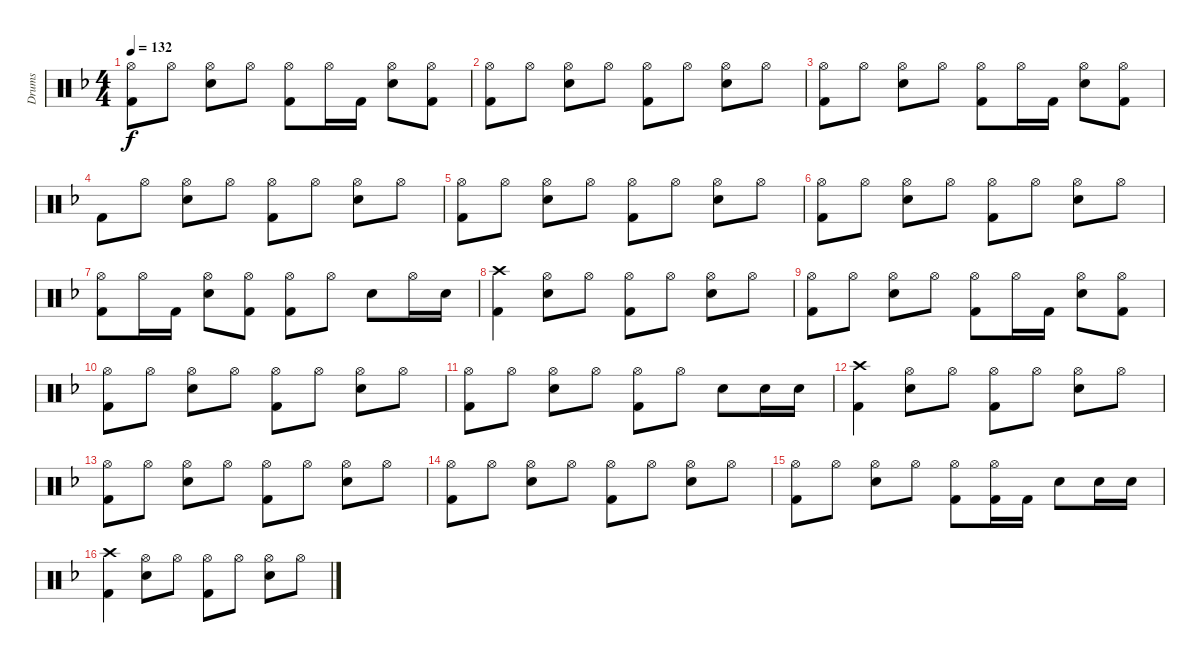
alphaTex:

\track ("Drums " "Drums ") {instrument percussion}
\staff {score}
\articulation defaults
\ts (4 4)
\tempo 132
\clef neutral
\ks dminor
("Kick (hit) 2" "Hi-Hat (open)").8{dy f} "Hi-Hat (open)".8 ("Snare (hit) 2" "Hi-Hat (open)").8 "Hi-Hat (open)".8 ("Kick (hit) 2" "Hi-Hat (open)").8 "Hi-Hat (open)".16 "Kick (hit) 2".16 ("Snare (hit) 2" "Hi-Hat (open)").8 ("Kick (hit) 2" "Hi-Hat (open)").8 |
("Kick (hit) 2" "Hi-Hat (open)").8 "Hi-Hat (open)".8 ("Snare (hit) 2" "Hi-Hat (open)").8 "Hi-Hat (open)".8 ("Kick (hit) 2" "Hi-Hat (open)").8 "Hi-Hat (open)".8 ("Snare (hit) 2" "Hi-Hat (open)").8 "Hi-Hat (open)".8 |
("Kick (hit) 2" "Hi-Hat (open)").8 "Hi-Hat (open)".8 ("Snare (hit) 2" "Hi-Hat (open)").8 "Hi-Hat (open)".8 ("Kick (hit) 2" "Hi-Hat (open)").8 "Hi-Hat (open)".16 "Kick (hit) 2".16 ("Snare (hit) 2" "Hi-Hat (open)").8 ("Kick (hit) 2" "Hi-Hat (open)").8 |
"Kick (hit) 2".8 "Hi-Hat (open)".8 ("Snare (hit) 2" "Hi-Hat (open)").8 "Hi-Hat (open)".8 ("Kick (hit) 2" "Hi-Hat (open)").8 "Hi-Hat (open)".8 ("Snare (hit) 2" "Hi-Hat (open)").8 "Hi-Hat (open)".8 |
("Kick (hit) 2" "Hi-Hat (open)").8 "Hi-Hat (open)".8 ("Snare (hit) 2" "Hi-Hat (open)").8 "Hi-Hat (open)".8 ("Kick (hit) 2" "Hi-Hat (open)").8 "Hi-Hat (open)".8 ("Snare (hit) 2" "Hi-Hat (open)").8 "Hi-Hat (open)".8 |
("Kick (hit) 2" "Hi-Hat (open)").8 "Hi-Hat (open)".8 ("Snare (hit) 2" "Hi-Hat (open)").8 "Hi-Hat (open)".8 ("Kick (hit) 2" "Hi-Hat (open)").8 "Hi-Hat (open)".8 ("Snare (hit) 2" "Hi-Hat (open)").8 "Hi-Hat (open)".8 |
("Kick (hit) 2" "Hi-Hat (open)").8 "Hi-Hat (open)".16 "Kick (hit) 2".16 ("Snare (hit) 2" "Hi-Hat (open)").8 ("Kick (hit) 2" "Hi-Hat (open)").8 ("Kick (hit) 2" "Hi-Hat (open)").8 "Hi-Hat (open)".8 "Snare (hit) 2".8 "Hi-Hat (open)".16 "Snare (hit) 2".16 |
("Kick (hit) 2" "Crash high (hit)").4 ("Snare (hit) 2" "Hi-Hat (open)").8 "Hi-Hat (open)".8 ("Kick (hit) 2" "Hi-Hat (open)").8 "Hi-Hat (open)".8 ("Snare (hit) 2" "Hi-Hat (open)").8 "Hi-Hat (open)".8 |
("Kick (hit) 2" "Hi-Hat (open)").8 "Hi-Hat (open)".8 ("Snare (hit) 2" "Hi-Hat (open)").8 "Hi-Hat (open)".8 ("Kick (hit) 2" "Hi-Hat (open)").8 "Hi-Hat (open)".16 "Kick (hit) 2".16 ("Snare (hit) 2" "Hi-Hat (open)").8 ("Kick (hit) 2" "Hi-Hat (open)").8 |
("Kick (hit) 2" "Hi-Hat (open)").8 "Hi-Hat (open)".8 ("Snare (hit) 2" "Hi-Hat (open)").8 "Hi-Hat (open)".8 ("Kick (hit) 2" "Hi-Hat (open)").8 "Hi-Hat (open)".8 ("Snare (hit) 2" "Hi-Hat (open)").8 "Hi-Hat (open)".8 |
("Kick (hit) 2" "Hi-Hat (open)").8 "Hi-Hat (open)".8 ("Snare (hit) 2" "Hi-Hat (open)").8 "Hi-Hat (open)".8 ("Kick (hit) 2" "Hi-Hat (open)").8 "Hi-Hat (open)".8 "Snare (hit) 2".8 "Snare (hit) 2".16 "Snare (hit) 2".16 |
("Kick (hit) 2" "Crash high (hit)").4 ("Snare (hit) 2" "Hi-Hat (open)").8 "Hi-Hat (open)".8 ("Kick (hit) 2" "Hi-Hat (open)").8 "Hi-Hat (open)".8 ("Snare (hit) 2" "Hi-Hat (open)").8 "Hi-Hat (open)".8 |
("Kick (hit) 2" "Hi-Hat (open)").8 "Hi-Hat (open)".8 ("Snare (hit) 2" "Hi-Hat (open)").8 "Hi-Hat (open)".8 ("Kick (hit) 2" "Hi-Hat (open)").8 "Hi-Hat (open)".8 ("Snare (hit) 2" "Hi-Hat (open)").8 "Hi-Hat (open)".8 |
("Kick (hit) 2" "Hi-Hat (open)").8 "Hi-Hat (open)".8 ("Snare (hit) 2" "Hi-Hat (open)").8 "Hi-Hat (open)".8 ("Kick (hit) 2" "Hi-Hat (open)").8 "Hi-Hat (open)".8 ("Snare (hit) 2" "Hi-Hat (open)").8 "Hi-Hat (open)".8 |
("Kick (hit) 2" "Hi-Hat (open)").8 "Hi-Hat (open)".8 ("Snare (hit) 2" "Hi-Hat (open)").8 "Hi-Hat (open)".8 ("Kick (hit) 2" "Hi-Hat (open)").8 ("Kick (hit) 2" "Hi-Hat (open)").16 "Kick (hit) 2".16 "Snare (hit) 2".8 "Snare (hit) 2".16 "Snare (hit) 2".16 |
("Kick (hit) 2" "Crash high (hit)").4 ("Snare (hit) 2" "Hi-Hat (open)").8 "Hi-Hat (open)".8 ("Kick (hit) 2" "Hi-Hat (open)").8 "Hi-Hat (open)".8 ("Snare (hit) 2" "Hi-Hat (open)").8 "Hi-Hat (open)".8
